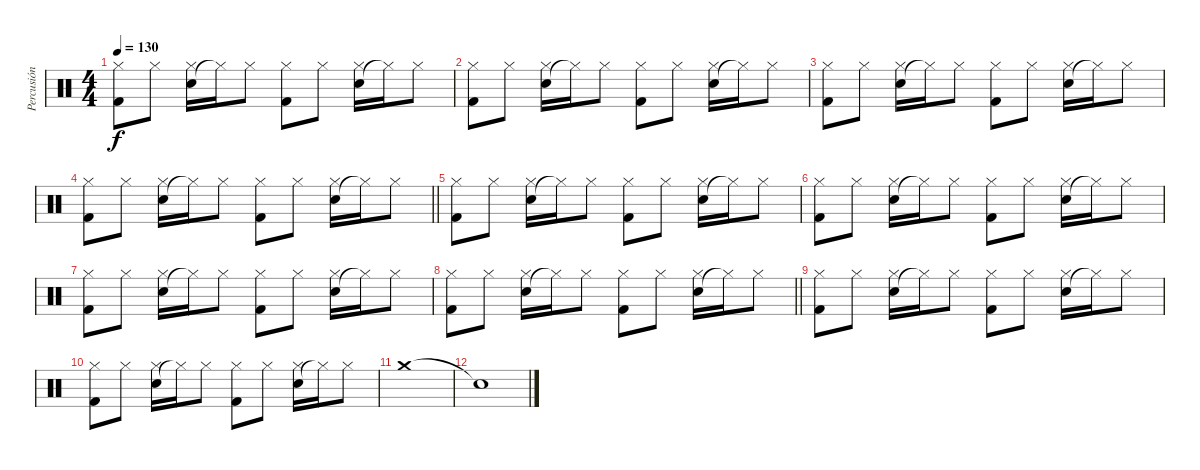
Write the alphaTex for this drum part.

\track ("Percusión" "Percusión") {instrument percussion}
\staff {score}
\articulation defaults
\ts (4 4)
\tempo 130
\clef neutral
\ks c
("Kick (hit) 2" "Hi-Hat (closed)").8{dy f} "Hi-Hat (closed)".8 ("Snare (hit) 2" "Hi-Hat (closed)").16 "Hi-Hat (closed)"{t}.16 "Hi-Hat (closed)".8 ("Kick (hit) 2" "Hi-Hat (closed)").8 "Hi-Hat (closed)".8 ("Snare (hit) 2" "Hi-Hat (closed)").16 "Hi-Hat (closed)"{t}.16 "Hi-Hat (closed)".8 |
("Kick (hit) 2" "Hi-Hat (closed)").8 "Hi-Hat (closed)".8 ("Snare (hit) 2" "Hi-Hat (closed)").16 "Hi-Hat (closed)"{t}.16 "Hi-Hat (closed)".8 ("Kick (hit) 2" "Hi-Hat (closed)").8 "Hi-Hat (closed)".8 ("Snare (hit) 2" "Hi-Hat (closed)").16 "Hi-Hat (closed)"{t}.16 "Hi-Hat (closed)".8 |
("Kick (hit) 2" "Hi-Hat (closed)").8 "Hi-Hat (closed)".8 ("Snare (hit) 2" "Hi-Hat (closed)").16 "Hi-Hat (closed)"{t}.16 "Hi-Hat (closed)".8 ("Kick (hit) 2" "Hi-Hat (closed)").8 "Hi-Hat (closed)".8 ("Snare (hit) 2" "Hi-Hat (closed)").16 "Hi-Hat (closed)"{t}.16 "Hi-Hat (closed)".8 |
\barLineRight lightlight
("Kick (hit) 2" "Hi-Hat (closed)").8 "Hi-Hat (closed)".8 ("Snare (hit) 2" "Hi-Hat (closed)").16 "Hi-Hat (closed)"{t}.16 "Hi-Hat (closed)".8 ("Kick (hit) 2" "Hi-Hat (closed)").8 "Hi-Hat (closed)".8 ("Snare (hit) 2" "Hi-Hat (closed)").16 "Hi-Hat (closed)"{t}.16 "Hi-Hat (closed)".8 |
("Kick (hit) 2" "Hi-Hat (closed)").8 "Hi-Hat (closed)".8 ("Snare (hit) 2" "Hi-Hat (closed)").16 "Hi-Hat (closed)"{t}.16 "Hi-Hat (closed)".8 ("Kick (hit) 2" "Hi-Hat (closed)").8 "Hi-Hat (closed)".8 ("Snare (hit) 2" "Hi-Hat (closed)").16 "Hi-Hat (closed)"{t}.16 "Hi-Hat (closed)".8 |
("Kick (hit) 2" "Hi-Hat (closed)").8 "Hi-Hat (closed)".8 ("Snare (hit) 2" "Hi-Hat (closed)").16 "Hi-Hat (closed)"{t}.16 "Hi-Hat (closed)".8 ("Kick (hit) 2" "Hi-Hat (closed)").8 "Hi-Hat (closed)".8 ("Snare (hit) 2" "Hi-Hat (closed)").16 "Hi-Hat (closed)"{t}.16 "Hi-Hat (closed)".8 |
("Kick (hit) 2" "Hi-Hat (closed)").8 "Hi-Hat (closed)".8 ("Snare (hit) 2" "Hi-Hat (closed)").16 "Hi-Hat (closed)"{t}.16 "Hi-Hat (closed)".8 ("Kick (hit) 2" "Hi-Hat (closed)").8 "Hi-Hat (closed)".8 ("Snare (hit) 2" "Hi-Hat (closed)").16 "Hi-Hat (closed)"{t}.16 "Hi-Hat (closed)".8 |
\barLineRight lightlight
("Kick (hit) 2" "Hi-Hat (closed)").8 "Hi-Hat (closed)".8 ("Snare (hit) 2" "Hi-Hat (closed)").16 "Hi-Hat (closed)"{t}.16 "Hi-Hat (closed)".8 ("Kick (hit) 2" "Hi-Hat (closed)").8 "Hi-Hat (closed)".8 ("Snare (hit) 2" "Hi-Hat (closed)").16 "Hi-Hat (closed)"{t}.16 "Hi-Hat (closed)".8 |
("Kick (hit) 2" "Hi-Hat (closed)").8 "Hi-Hat (closed)".8 ("Snare (hit) 2" "Hi-Hat (closed)").16 "Hi-Hat (closed)"{t}.16 "Hi-Hat (closed)".8 ("Kick (hit) 2" "Hi-Hat (closed)").8 "Hi-Hat (closed)".8 ("Snare (hit) 2" "Hi-Hat (closed)").16 "Hi-Hat (closed)"{t}.16 "Hi-Hat (closed)".8 |
("Kick (hit) 2" "Hi-Hat (closed)").8 "Hi-Hat (closed)".8 ("Snare (hit) 2" "Hi-Hat (closed)").16 "Hi-Hat (closed)"{t}.16 "Hi-Hat (closed)".8 ("Kick (hit) 2" "Hi-Hat (closed)").8 "Hi-Hat (closed)".8 ("Snare (hit) 2" "Hi-Hat (closed)").16 "Hi-Hat (closed)"{t}.16 "Hi-Hat (closed)".8 |
"Crash medium (hit)".1 |
"Snare (hit)"{t}.1
